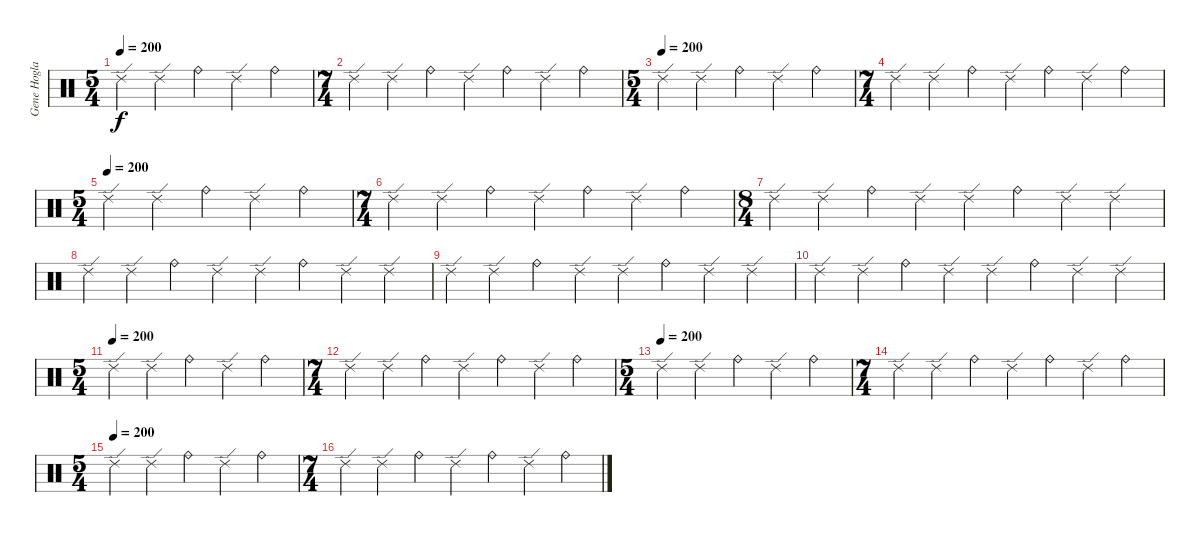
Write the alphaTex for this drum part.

\track ("Gene Hoglan" "Gene Hogla") {instrument percussion}
\staff {score}
\articulation defaults
\ts (5 4)
\tempo 200
\clef neutral
\ks c "Ride (edge) 2".4{dy f} "Ride (edge) 2".4 "Ride (bell)".4 "Ride (edge) 2".4 "Ride (bell)".4
|
\ts (7 4)
"Ride (edge) 2".4 "Ride (edge) 2".4 "Ride (bell)".4 "Ride (edge) 2".4 "Ride (bell)".4 "Ride (edge) 2".4 "Ride (bell)".4 |
\ts (5 4)
\tempo (200)
"Ride (edge) 2".4 "Ride (edge) 2".4 "Ride (bell)".4 "Ride (edge) 2".4 "Ride (bell)".4 |
\ts (7 4)
"Ride (edge) 2".4 "Ride (edge) 2".4 "Ride (bell)".4 "Ride (edge) 2".4 "Ride (bell)".4 "Ride (edge) 2".4 "Ride (bell)".4 |
\ts (5 4)
\tempo (200)
"Ride (edge) 2".4 "Ride (edge) 2".4 "Ride (bell)".4 "Ride (edge) 2".4 "Ride (bell)".4 |
\ts (7 4)
"Ride (edge) 2".4 "Ride (edge) 2".4 "Ride (bell)".4 "Ride (edge) 2".4 "Ride (bell)".4 "Ride (edge) 2".4 "Ride (bell)".4 |
\ts (8 4)
"Ride (edge) 2".4 "Ride (edge) 2".4 "Ride (bell)".4 "Ride (edge) 2".4 "Ride (edge) 2".4 "Ride (bell)".4 "Ride (edge) 2".4 "Ride (edge) 2".4 |
"Ride (edge) 2".4 "Ride (edge) 2".4 "Ride (bell)".4 "Ride (edge) 2".4 "Ride (edge) 2".4 "Ride (bell)".4 "Ride (edge) 2".4 "Ride (edge) 2".4 |
"Ride (edge) 2".4 "Ride (edge) 2".4 "Ride (bell)".4 "Ride (edge) 2".4 "Ride (edge) 2".4 "Ride (bell)".4 "Ride (edge) 2".4 "Ride (edge) 2".4 |
"Ride (edge) 2".4 "Ride (edge) 2".4 "Ride (bell)".4 "Ride (edge) 2".4 "Ride (edge) 2".4 "Ride (bell)".4 "Ride (edge) 2".4 "Ride (edge) 2".4 |
\ts (5 4)
\tempo (200)
"Ride (edge) 2".4 "Ride (edge) 2".4 "Ride (bell)".4 "Ride (edge) 2".4 "Ride (bell)".4 |
\ts (7 4)
"Ride (edge) 2".4 "Ride (edge) 2".4 "Ride (bell)".4 "Ride (edge) 2".4 "Ride (bell)".4 "Ride (edge) 2".4 "Ride (bell)".4 |
\ts (5 4)
\tempo (200)
"Ride (edge) 2".4 "Ride (edge) 2".4 "Ride (bell)".4 "Ride (edge) 2".4 "Ride (bell)".4 |
\ts (7 4)
"Ride (edge) 2".4 "Ride (edge) 2".4 "Ride (bell)".4 "Ride (edge) 2".4 "Ride (bell)".4 "Ride (edge) 2".4 "Ride (bell)".4 |
\ts (5 4)
\tempo (200)
"Ride (edge) 2".4 "Ride (edge) 2".4 "Ride (bell)".4 "Ride (edge) 2".4 "Ride (bell)".4 |
\ts (7 4)
"Ride (edge) 2".4 "Ride (edge) 2".4 "Ride (bell)".4 "Ride (edge) 2".4 "Ride (bell)".4 "Ride (edge) 2".4 "Ride (bell)".4
